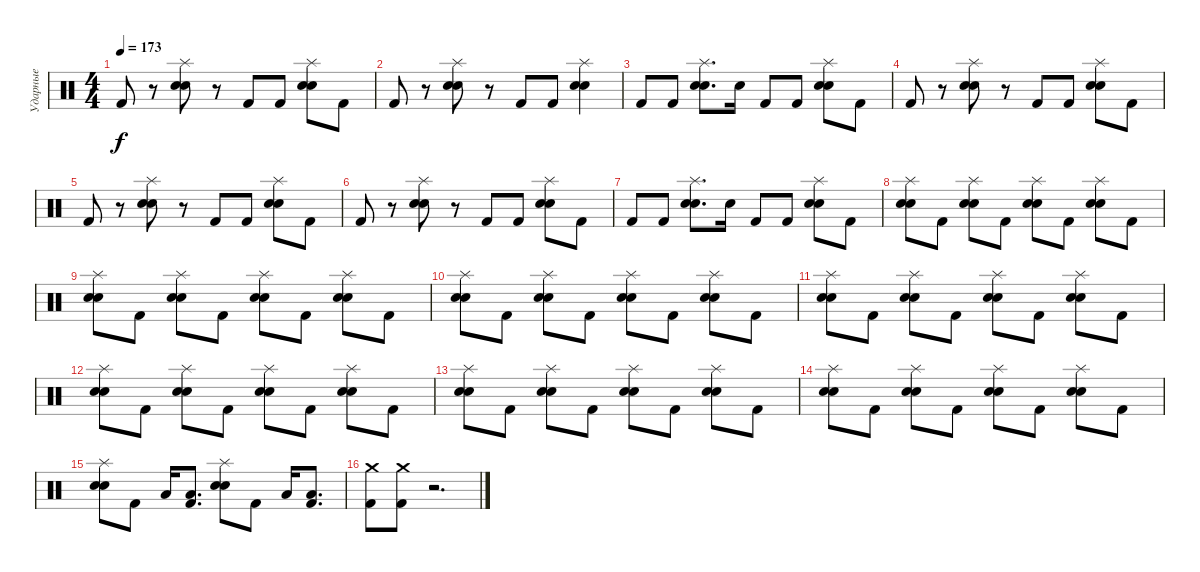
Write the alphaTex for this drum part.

\track ("Ударные" "Ударные") {instrument percussion}
\staff {score}
\articulation defaults
\ts (4 4)
\tempo 173
\clef neutral
\ks c "Kick (hit) 2".8{dy f}
r.8 ("Splash (hit)" "Electric Snare (hit)" "Snare (hit) 2").8 r.8 "Kick (hit) 2".8 "Kick (hit) 2".8 ("Splash (hit)" "Electric Snare (hit)" "Snare (hit) 2").8 "Kick (hit) 2".8 |
"Kick (hit) 2".8 r.8 ("Splash (hit)" "Electric Snare (hit)" "Snare (hit) 2").8 r.8 "Kick (hit) 2".8 "Kick (hit) 2".8 ("Splash (hit)" "Electric Snare (hit)" "Snare (hit) 2").4 |
"Kick (hit) 2".8 "Kick (hit) 2".8 ("Splash (hit)" "Electric Snare (hit)" "Snare (hit) 2").8{d} "Electric Snare (hit)".16 "Kick (hit) 2".8 "Kick (hit) 2".8 ("Splash (hit)" "Electric Snare (hit)" "Snare (hit) 2").8 "Kick (hit) 2".8 |
"Kick (hit) 2".8 r.8 ("Splash (hit)" "Electric Snare (hit)" "Snare (hit) 2").8 r.8 "Kick (hit) 2".8 "Kick (hit) 2".8 ("Splash (hit)" "Electric Snare (hit)" "Snare (hit) 2").8 "Kick (hit) 2".8 |
"Kick (hit) 2".8 r.8 ("Splash (hit)" "Electric Snare (hit)" "Snare (hit) 2").8 r.8 "Kick (hit) 2".8 "Kick (hit) 2".8 ("Splash (hit)" "Electric Snare (hit)" "Snare (hit) 2").8 "Kick (hit) 2".8 |
"Kick (hit) 2".8 r.8 ("Splash (hit)" "Electric Snare (hit)" "Snare (hit) 2").8 r.8 "Kick (hit) 2".8 "Kick (hit) 2".8 ("Splash (hit)" "Electric Snare (hit)" "Snare (hit) 2").8 "Kick (hit) 2".8 |
"Kick (hit) 2".8 "Kick (hit) 2".8 ("Splash (hit)" "Electric Snare (hit)" "Snare (hit) 2").8{d} "Electric Snare (hit)".16 "Kick (hit) 2".8 "Kick (hit) 2".8 ("Splash (hit)" "Electric Snare (hit)" "Snare (hit) 2").8 "Kick (hit) 2".8 |
("Splash (hit)" "Electric Snare (hit)" "Snare (hit) 2").8 "Kick (hit) 2".8 ("Splash (hit)" "Electric Snare (hit)" "Snare (hit) 2").8 "Kick (hit) 2".8 ("Splash (hit)" "Electric Snare (hit)" "Snare (hit) 2").8 "Kick (hit) 2".8 ("Splash (hit)" "Electric Snare (hit)" "Snare (hit) 2").8 "Kick (hit) 2".8 |
("Splash (hit)" "Electric Snare (hit)" "Snare (hit) 2").8 "Kick (hit) 2".8 ("Splash (hit)" "Electric Snare (hit)" "Snare (hit) 2").8 "Kick (hit) 2".8 ("Splash (hit)" "Electric Snare (hit)" "Snare (hit) 2").8 "Kick (hit) 2".8 ("Splash (hit)" "Electric Snare (hit)" "Snare (hit) 2").8 "Kick (hit) 2".8 |
("Splash (hit)" "Electric Snare (hit)" "Snare (hit) 2").8 "Kick (hit) 2".8 ("Splash (hit)" "Electric Snare (hit)" "Snare (hit) 2").8 "Kick (hit) 2".8 ("Splash (hit)" "Electric Snare (hit)" "Snare (hit) 2").8 "Kick (hit) 2".8 ("Splash (hit)" "Electric Snare (hit)" "Snare (hit) 2").8 "Kick (hit) 2".8 |
("Splash (hit)" "Electric Snare (hit)" "Snare (hit) 2").8 "Kick (hit) 2".8 ("Splash (hit)" "Electric Snare (hit)" "Snare (hit) 2").8 "Kick (hit) 2".8 ("Splash (hit)" "Electric Snare (hit)" "Snare (hit) 2").8 "Kick (hit) 2".8 ("Splash (hit)" "Electric Snare (hit)" "Snare (hit) 2").8 "Kick (hit) 2".8 |
("Splash (hit)" "Electric Snare (hit)" "Snare (hit) 2").8 "Kick (hit) 2".8 ("Splash (hit)" "Electric Snare (hit)" "Snare (hit) 2").8 "Kick (hit) 2".8 ("Splash (hit)" "Electric Snare (hit)" "Snare (hit) 2").8 "Kick (hit) 2".8 ("Splash (hit)" "Electric Snare (hit)" "Snare (hit) 2").8 "Kick (hit) 2".8 |
("Splash (hit)" "Electric Snare (hit)" "Snare (hit) 2").8 "Kick (hit) 2".8 ("Splash (hit)" "Electric Snare (hit)" "Snare (hit) 2").8 "Kick (hit) 2".8 ("Splash (hit)" "Electric Snare (hit)" "Snare (hit) 2").8 "Kick (hit) 2".8 ("Splash (hit)" "Electric Snare (hit)" "Snare (hit) 2").8 "Kick (hit) 2".8 |
("Splash (hit)" "Electric Snare (hit)" "Snare (hit) 2").8 "Kick (hit) 2".8 ("Splash (hit)" "Electric Snare (hit)" "Snare (hit) 2").8 "Kick (hit) 2".8 ("Splash (hit)" "Electric Snare (hit)" "Snare (hit) 2").8 "Kick (hit) 2".8 ("Splash (hit)" "Electric Snare (hit)" "Snare (hit) 2").8 "Kick (hit) 2".8 |
("Splash (hit)" "Electric Snare (hit)" "Snare (hit) 2").8 "Kick (hit) 2".8 "Low Tom (hit)".16 ("Low Tom (hit)" "Kick (hit) 2").8{d} ("Splash (hit)" "Electric Snare (hit)" "Snare (hit) 2").8 "Kick (hit) 2".8 "Low Tom (hit)".16 ("Low Tom (hit)" "Kick (hit) 2").8{d} |
("Crash medium (hit)" "Kick (hit) 2").8 ("Crash medium (hit)" "Kick (hit) 2").8 r.2{d}
